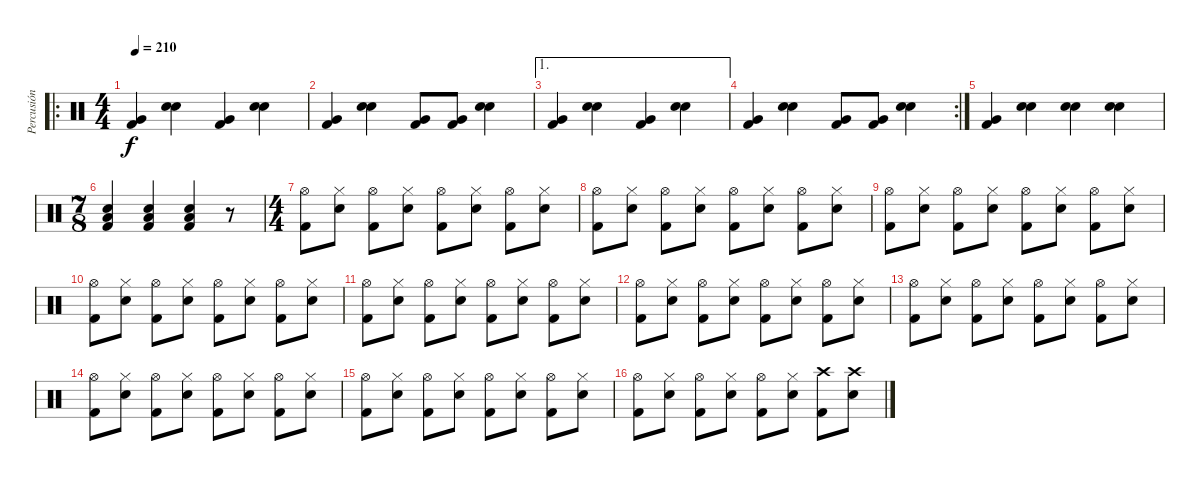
\track ("Percusión" "Percusión") {instrument percussion}
\staff {score}
\articulation defaults
\ro
\ts (4 4)
\tempo 210
\clef neutral
\ks c
("Very Low Tom (hit)" "Kick (hit) 2").4{dy f} ("Snare (hit) 2" "Electric Snare (hit)").4 ("Very Low Tom (hit)" "Kick (hit) 2").4 ("Snare (hit) 2" "Electric Snare (hit)").4 |
("Very Low Tom (hit)" "Kick (hit) 2").4 ("Snare (hit) 2" "Electric Snare (hit)").4 ("Very Low Tom (hit)" "Kick (hit) 2").8 ("Very Low Tom (hit)" "Kick (hit) 2").8 ("Snare (hit) 2" "Electric Snare (hit)").4 |
\ae 1
("Very Low Tom (hit)" "Kick (hit) 2").4 ("Snare (hit) 2" "Electric Snare (hit)").4 ("Very Low Tom (hit)" "Kick (hit) 2").4 ("Snare (hit) 2" "Electric Snare (hit)").4 |
\rc 2
("Very Low Tom (hit)" "Kick (hit) 2").4 ("Snare (hit) 2" "Electric Snare (hit)").4 ("Very Low Tom (hit)" "Kick (hit) 2").8 ("Very Low Tom (hit)" "Kick (hit) 2").8 ("Snare (hit) 2" "Electric Snare (hit)").4 |
("Very Low Tom (hit)" "Kick (hit) 2").4 ("Snare (hit) 2" "Electric Snare (hit)").4 ("Snare (hit) 2" "Electric Snare (hit)").4 ("Snare (hit) 2" "Electric Snare (hit)").4 |
\ts (7 8)
("Kick (hit) 2" "Electric Snare (hit)" "Low Floor Tom (hit)").4 ("Kick (hit) 2" "Electric Snare (hit)" "Low Floor Tom (hit)").4 ("Kick (hit) 2" "Electric Snare (hit)" "Low Floor Tom (hit)").4 r.8 |
\ts (4 4)
("Hi-Hat (open)" "Kick (hit) 2").8 ("Hi-Hat (closed)" "Electric Snare (hit)").8 ("Hi-Hat (open)" "Kick (hit) 2").8 ("Hi-Hat (closed)" "Electric Snare (hit)").8 ("Hi-Hat (open)" "Kick (hit) 2").8 ("Hi-Hat (closed)" "Electric Snare (hit)").8 ("Hi-Hat (open)" "Kick (hit) 2").8 ("Hi-Hat (closed)" "Electric Snare (hit)").8 |
("Hi-Hat (open)" "Kick (hit) 2").8 ("Hi-Hat (closed)" "Electric Snare (hit)").8 ("Hi-Hat (open)" "Kick (hit) 2").8 ("Hi-Hat (closed)" "Electric Snare (hit)").8 ("Hi-Hat (open)" "Kick (hit) 2").8 ("Hi-Hat (closed)" "Electric Snare (hit)").8 ("Hi-Hat (open)" "Kick (hit) 2").8 ("Hi-Hat (closed)" "Electric Snare (hit)").8 |
("Hi-Hat (open)" "Kick (hit) 2").8 ("Hi-Hat (closed)" "Electric Snare (hit)").8 ("Hi-Hat (open)" "Kick (hit) 2").8 ("Hi-Hat (closed)" "Electric Snare (hit)").8 ("Hi-Hat (open)" "Kick (hit) 2").8 ("Hi-Hat (closed)" "Electric Snare (hit)").8 ("Hi-Hat (open)" "Kick (hit) 2").8 ("Hi-Hat (closed)" "Electric Snare (hit)").8 |
("Hi-Hat (open)" "Kick (hit) 2").8 ("Hi-Hat (closed)" "Electric Snare (hit)").8 ("Hi-Hat (open)" "Kick (hit) 2").8 ("Hi-Hat (closed)" "Electric Snare (hit)").8 ("Hi-Hat (open)" "Kick (hit) 2").8 ("Hi-Hat (closed)" "Electric Snare (hit)").8 ("Hi-Hat (open)" "Kick (hit) 2").8 ("Hi-Hat (closed)" "Electric Snare (hit)").8 |
("Hi-Hat (open)" "Kick (hit) 2").8 ("Hi-Hat (closed)" "Electric Snare (hit)").8 ("Hi-Hat (open)" "Kick (hit) 2").8 ("Hi-Hat (closed)" "Electric Snare (hit)").8 ("Hi-Hat (open)" "Kick (hit) 2").8 ("Hi-Hat (closed)" "Electric Snare (hit)").8 ("Hi-Hat (open)" "Kick (hit) 2").8 ("Hi-Hat (closed)" "Electric Snare (hit)").8 |
("Hi-Hat (open)" "Kick (hit) 2").8 ("Hi-Hat (closed)" "Electric Snare (hit)").8 ("Hi-Hat (open)" "Kick (hit) 2").8 ("Hi-Hat (closed)" "Electric Snare (hit)").8 ("Hi-Hat (open)" "Kick (hit) 2").8 ("Hi-Hat (closed)" "Electric Snare (hit)").8 ("Hi-Hat (open)" "Kick (hit) 2").8 ("Hi-Hat (closed)" "Electric Snare (hit)").8 |
("Hi-Hat (open)" "Kick (hit) 2").8 ("Hi-Hat (closed)" "Electric Snare (hit)").8 ("Hi-Hat (open)" "Kick (hit) 2").8 ("Hi-Hat (closed)" "Electric Snare (hit)").8 ("Hi-Hat (open)" "Kick (hit) 2").8 ("Hi-Hat (closed)" "Electric Snare (hit)").8 ("Hi-Hat (open)" "Kick (hit) 2").8 ("Hi-Hat (closed)" "Electric Snare (hit)").8 |
("Hi-Hat (open)" "Kick (hit) 2").8 ("Hi-Hat (closed)" "Electric Snare (hit)").8 ("Hi-Hat (open)" "Kick (hit) 2").8 ("Hi-Hat (closed)" "Electric Snare (hit)").8 ("Hi-Hat (open)" "Kick (hit) 2").8 ("Hi-Hat (closed)" "Electric Snare (hit)").8 ("Hi-Hat (open)" "Kick (hit) 2").8 ("Hi-Hat (closed)" "Electric Snare (hit)").8 |
("Hi-Hat (open)" "Kick (hit) 2").8 ("Hi-Hat (closed)" "Electric Snare (hit)").8 ("Hi-Hat (open)" "Kick (hit) 2").8 ("Hi-Hat (closed)" "Electric Snare (hit)").8 ("Hi-Hat (open)" "Kick (hit) 2").8 ("Hi-Hat (closed)" "Electric Snare (hit)").8 ("Hi-Hat (open)" "Kick (hit) 2").8 ("Hi-Hat (closed)" "Electric Snare (hit)").8 |
("Hi-Hat (open)" "Kick (hit) 2").8 ("Hi-Hat (closed)" "Electric Snare (hit)").8 ("Hi-Hat (open)" "Kick (hit) 2").8 ("Hi-Hat (closed)" "Electric Snare (hit)").8 ("Hi-Hat (open)" "Kick (hit) 2").8 ("Hi-Hat (closed)" "Electric Snare (hit)").8 ("Crash high (hit)" "Kick (hit) 2").8 ("Crash high (hit)" "Electric Snare (hit)").8
